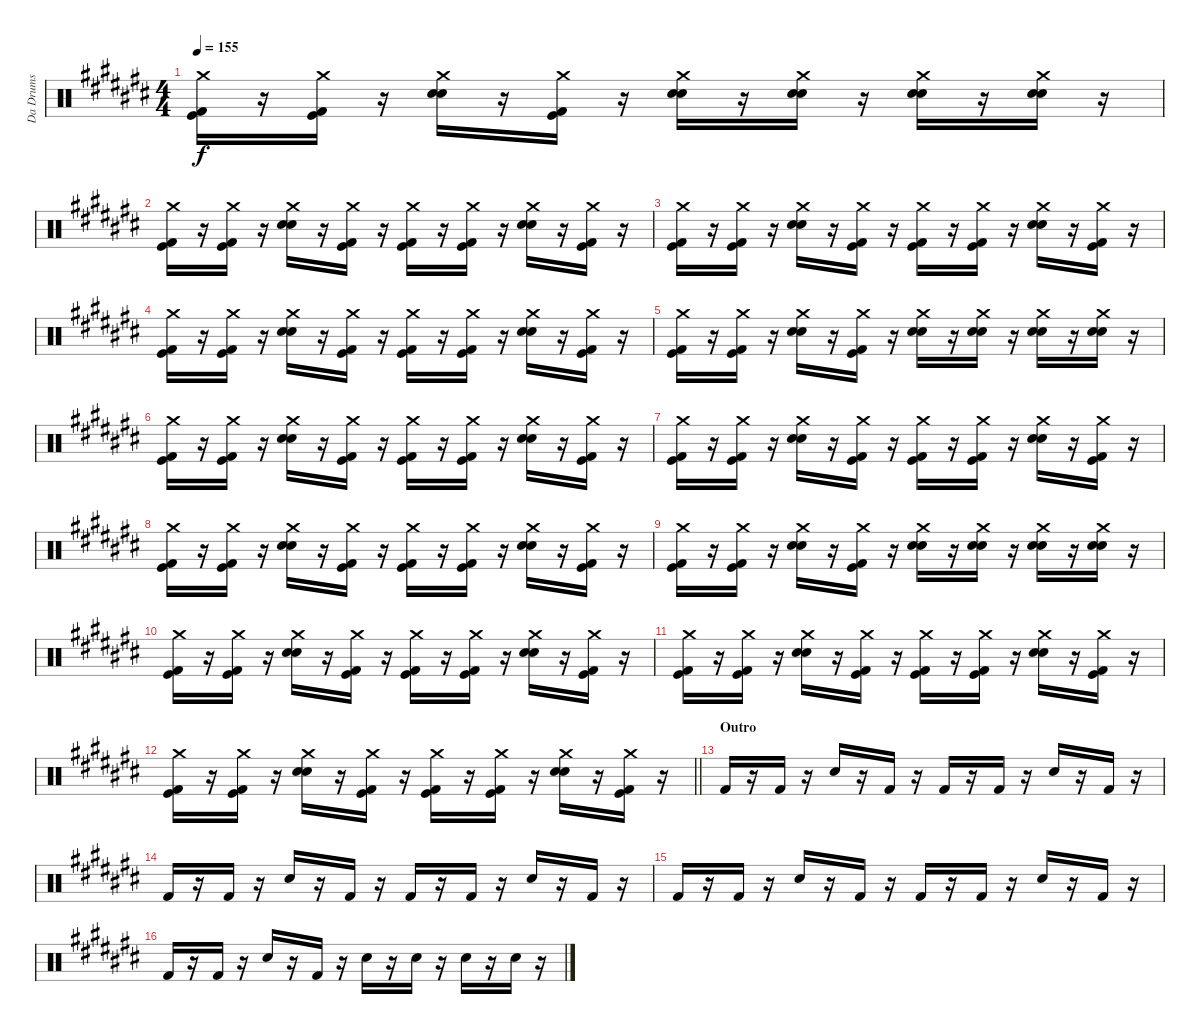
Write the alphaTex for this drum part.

\track ("Da Drums" "Da Drums") {instrument percussion}
\staff {score}
\articulation defaults
\ts (4 4)
\tempo 155
\clef neutral
\ks c#
("Crash medium (hit)" "Kick (hit)" "Kick (hit) 2").16{dy f} r.16 ("Crash medium (hit)" "Kick (hit)" "Kick (hit) 2").16 r.16 ("Crash medium (hit)" "Electric Snare (hit)" "Snare (hit) 2").16 r.16 ("Crash medium (hit)" "Kick (hit)" "Kick (hit) 2").16 r.16 ("Crash medium (hit)" "Electric Snare (hit)" "Snare (hit) 2").16 r.16 ("Crash medium (hit)" "Electric Snare (hit)" "Snare (hit) 2").16 r.16 ("Crash medium (hit)" "Electric Snare (hit)" "Snare (hit) 2").16 r.16 ("Crash medium (hit)" "Electric Snare (hit)" "Snare (hit) 2").16 r.16 |
("Crash medium (hit)" "Kick (hit)" "Kick (hit) 2").16 r.16 ("Crash medium (hit)" "Kick (hit)" "Kick (hit) 2").16 r.16 ("Crash medium (hit)" "Electric Snare (hit)" "Snare (hit) 2").16 r.16 ("Crash medium (hit)" "Kick (hit)" "Kick (hit) 2").16 r.16 ("Crash medium (hit)" "Kick (hit)" "Kick (hit) 2").16 r.16 ("Crash medium (hit)" "Kick (hit)" "Kick (hit) 2").16 r.16 ("Crash medium (hit)" "Electric Snare (hit)" "Snare (hit) 2").16 r.16 ("Crash medium (hit)" "Kick (hit)" "Kick (hit) 2").16 r.16 |
("Crash medium (hit)" "Kick (hit)" "Kick (hit) 2").16 r.16 ("Crash medium (hit)" "Kick (hit)" "Kick (hit) 2").16 r.16 ("Crash medium (hit)" "Electric Snare (hit)" "Snare (hit) 2").16 r.16 ("Crash medium (hit)" "Kick (hit)" "Kick (hit) 2").16 r.16 ("Crash medium (hit)" "Kick (hit)" "Kick (hit) 2").16 r.16 ("Crash medium (hit)" "Kick (hit)" "Kick (hit) 2").16 r.16 ("Crash medium (hit)" "Electric Snare (hit)" "Snare (hit) 2").16 r.16 ("Crash medium (hit)" "Kick (hit)" "Kick (hit) 2").16 r.16 |
("Crash medium (hit)" "Kick (hit)" "Kick (hit) 2").16 r.16 ("Crash medium (hit)" "Kick (hit)" "Kick (hit) 2").16 r.16 ("Crash medium (hit)" "Electric Snare (hit)" "Snare (hit) 2").16 r.16 ("Crash medium (hit)" "Kick (hit)" "Kick (hit) 2").16 r.16 ("Crash medium (hit)" "Kick (hit)" "Kick (hit) 2").16 r.16 ("Crash medium (hit)" "Kick (hit)" "Kick (hit) 2").16 r.16 ("Crash medium (hit)" "Electric Snare (hit)" "Snare (hit) 2").16 r.16 ("Crash medium (hit)" "Kick (hit)" "Kick (hit) 2").16 r.16 |
("Crash medium (hit)" "Kick (hit)" "Kick (hit) 2").16 r.16 ("Crash medium (hit)" "Kick (hit)" "Kick (hit) 2").16 r.16 ("Crash medium (hit)" "Electric Snare (hit)" "Snare (hit) 2").16 r.16 ("Crash medium (hit)" "Kick (hit)" "Kick (hit) 2").16 r.16 ("Crash medium (hit)" "Electric Snare (hit)" "Snare (hit) 2").16 r.16 ("Crash medium (hit)" "Electric Snare (hit)" "Snare (hit) 2").16 r.16 ("Crash medium (hit)" "Electric Snare (hit)" "Snare (hit) 2").16 r.16 ("Crash medium (hit)" "Electric Snare (hit)" "Snare (hit) 2").16 r.16 |
("Crash medium (hit)" "Kick (hit)" "Kick (hit) 2").16 r.16 ("Crash medium (hit)" "Kick (hit)" "Kick (hit) 2").16 r.16 ("Crash medium (hit)" "Electric Snare (hit)" "Snare (hit) 2").16 r.16 ("Crash medium (hit)" "Kick (hit)" "Kick (hit) 2").16 r.16 ("Crash medium (hit)" "Kick (hit)" "Kick (hit) 2").16 r.16 ("Crash medium (hit)" "Kick (hit)" "Kick (hit) 2").16 r.16 ("Crash medium (hit)" "Electric Snare (hit)" "Snare (hit) 2").16 r.16 ("Crash medium (hit)" "Kick (hit)" "Kick (hit) 2").16 r.16 |
("Crash medium (hit)" "Kick (hit)" "Kick (hit) 2").16 r.16 ("Crash medium (hit)" "Kick (hit)" "Kick (hit) 2").16 r.16 ("Crash medium (hit)" "Electric Snare (hit)" "Snare (hit) 2").16 r.16 ("Crash medium (hit)" "Kick (hit)" "Kick (hit) 2").16 r.16 ("Crash medium (hit)" "Kick (hit)" "Kick (hit) 2").16 r.16 ("Crash medium (hit)" "Kick (hit)" "Kick (hit) 2").16 r.16 ("Crash medium (hit)" "Electric Snare (hit)" "Snare (hit) 2").16 r.16 ("Crash medium (hit)" "Kick (hit)" "Kick (hit) 2").16 r.16 |
("Crash medium (hit)" "Kick (hit)" "Kick (hit) 2").16 r.16 ("Crash medium (hit)" "Kick (hit)" "Kick (hit) 2").16 r.16 ("Crash medium (hit)" "Electric Snare (hit)" "Snare (hit) 2").16 r.16 ("Crash medium (hit)" "Kick (hit)" "Kick (hit) 2").16 r.16 ("Crash medium (hit)" "Kick (hit)" "Kick (hit) 2").16 r.16 ("Crash medium (hit)" "Kick (hit)" "Kick (hit) 2").16 r.16 ("Crash medium (hit)" "Electric Snare (hit)" "Snare (hit) 2").16 r.16 ("Crash medium (hit)" "Kick (hit)" "Kick (hit) 2").16 r.16 |
("Crash medium (hit)" "Kick (hit)" "Kick (hit) 2").16 r.16 ("Crash medium (hit)" "Kick (hit)" "Kick (hit) 2").16 r.16 ("Crash medium (hit)" "Electric Snare (hit)" "Snare (hit) 2").16 r.16 ("Crash medium (hit)" "Kick (hit)" "Kick (hit) 2").16 r.16 ("Crash medium (hit)" "Electric Snare (hit)" "Snare (hit) 2").16 r.16 ("Crash medium (hit)" "Electric Snare (hit)" "Snare (hit) 2").16 r.16 ("Crash medium (hit)" "Electric Snare (hit)" "Snare (hit) 2").16 r.16 ("Crash medium (hit)" "Electric Snare (hit)" "Snare (hit) 2").16 r.16 |
("Crash medium (hit)" "Kick (hit)" "Kick (hit) 2").16 r.16 ("Crash medium (hit)" "Kick (hit)" "Kick (hit) 2").16 r.16 ("Crash medium (hit)" "Electric Snare (hit)" "Snare (hit) 2").16 r.16 ("Crash medium (hit)" "Kick (hit)" "Kick (hit) 2").16 r.16 ("Crash medium (hit)" "Kick (hit)" "Kick (hit) 2").16 r.16 ("Crash medium (hit)" "Kick (hit)" "Kick (hit) 2").16 r.16 ("Crash medium (hit)" "Electric Snare (hit)" "Snare (hit) 2").16 r.16 ("Crash medium (hit)" "Kick (hit)" "Kick (hit) 2").16 r.16 |
("Crash medium (hit)" "Kick (hit)" "Kick (hit) 2").16 r.16 ("Crash medium (hit)" "Kick (hit)" "Kick (hit) 2").16 r.16 ("Crash medium (hit)" "Electric Snare (hit)" "Snare (hit) 2").16 r.16 ("Crash medium (hit)" "Kick (hit)" "Kick (hit) 2").16 r.16 ("Crash medium (hit)" "Kick (hit)" "Kick (hit) 2").16 r.16 ("Crash medium (hit)" "Kick (hit)" "Kick (hit) 2").16 r.16 ("Crash medium (hit)" "Electric Snare (hit)" "Snare (hit) 2").16 r.16 ("Crash medium (hit)" "Kick (hit)" "Kick (hit) 2").16 r.16 |
\barLineRight lightlight
("Crash medium (hit)" "Kick (hit)" "Kick (hit) 2").16 r.16 ("Crash medium (hit)" "Kick (hit)" "Kick (hit) 2").16 r.16 ("Crash medium (hit)" "Electric Snare (hit)" "Snare (hit) 2").16 r.16 ("Crash medium (hit)" "Kick (hit)" "Kick (hit) 2").16 r.16 ("Crash medium (hit)" "Kick (hit)" "Kick (hit) 2").16 r.16 ("Crash medium (hit)" "Kick (hit)" "Kick (hit) 2").16 r.16 ("Crash medium (hit)" "Electric Snare (hit)" "Snare (hit) 2").16 r.16 ("Crash medium (hit)" "Kick (hit)" "Kick (hit) 2").16 r.16 |
\section ("" "Outro")
"Kick (hit) 2".16 r.16 "Kick (hit) 2".16 r.16 "Snare (hit) 2".16 r.16 "Kick (hit) 2".16 r.16 "Kick (hit) 2".16 r.16 "Kick (hit) 2".16 r.16 "Snare (hit) 2".16 r.16 "Kick (hit) 2".16 r.16 |
"Kick (hit) 2".16 r.16 "Kick (hit) 2".16 r.16 "Snare (hit) 2".16 r.16 "Kick (hit) 2".16 r.16 "Kick (hit) 2".16 r.16 "Kick (hit) 2".16 r.16 "Snare (hit) 2".16 r.16 "Kick (hit) 2".16 r.16 |
"Kick (hit) 2".16 r.16 "Kick (hit) 2".16 r.16 "Snare (hit) 2".16 r.16 "Kick (hit) 2".16 r.16 "Kick (hit) 2".16 r.16 "Kick (hit) 2".16 r.16 "Snare (hit) 2".16 r.16 "Kick (hit) 2".16 r.16 |
"Kick (hit) 2".16 r.16 "Kick (hit) 2".16 r.16 "Snare (hit) 2".16 r.16 "Kick (hit) 2".16 r.16 "Snare (hit) 2".16 r.16 "Snare (hit) 2".16 r.16 "Snare (hit) 2".16 r.16 "Snare (hit) 2".16 r.16
